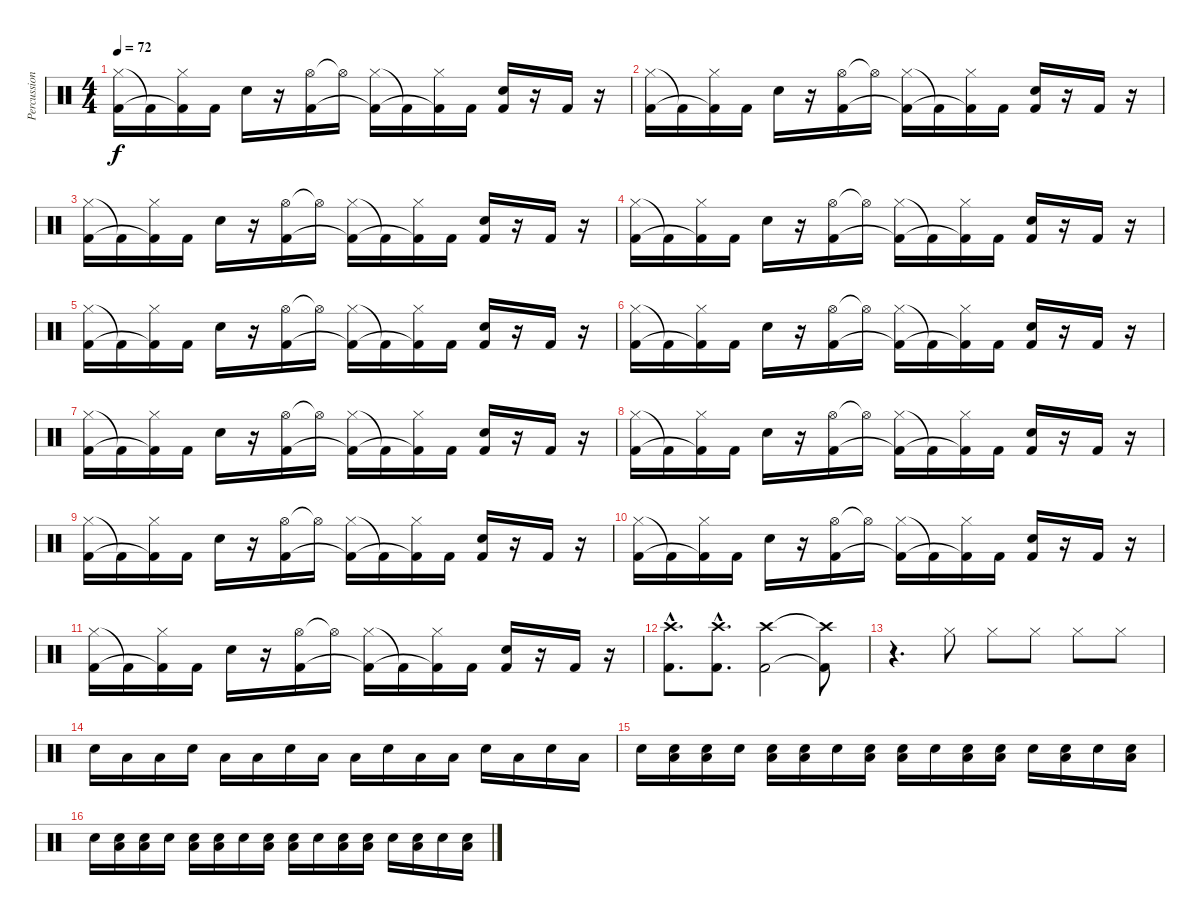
\track ("Percussion" "Percussion") {instrument percussion}
\staff {score}
\articulation defaults
\ts (4 4)
\tempo 72
\clef neutral
\ks c
("Hi-Hat (closed)" "Kick (hit) 2").16{dy f} "Kick (hit) 2"{t}.16 ("Hi-Hat (closed)" "Kick (hit) 2"{t}).16 "Kick (hit) 2".16 "Snare (hit) 2".16 r.16 ("Hi-Hat (open)" "Kick (hit) 2").16 "Hi-Hat (open)"{t}.16 ("Hi-Hat (closed)" "Kick (hit) 2"{t}).16 "Kick (hit) 2"{t}.16 ("Hi-Hat (closed)" "Kick (hit) 2"{t}).16 "Kick (hit) 2".16 ("Snare (hit) 2" "Kick (hit) 2").16 r.16 "Kick (hit) 2".16 r.16 |
("Hi-Hat (closed)" "Kick (hit) 2").16 "Kick (hit) 2"{t}.16 ("Hi-Hat (closed)" "Kick (hit) 2"{t}).16 "Kick (hit) 2".16 "Snare (hit) 2".16 r.16 ("Hi-Hat (open)" "Kick (hit) 2").16 "Hi-Hat (open)"{t}.16 ("Hi-Hat (closed)" "Kick (hit) 2"{t}).16 "Kick (hit) 2"{t}.16 ("Hi-Hat (closed)" "Kick (hit) 2"{t}).16 "Kick (hit) 2".16 ("Snare (hit) 2" "Kick (hit) 2").16 r.16 "Kick (hit) 2".16 r.16 |
("Hi-Hat (closed)" "Kick (hit) 2").16 "Kick (hit) 2"{t}.16 ("Hi-Hat (closed)" "Kick (hit) 2"{t}).16 "Kick (hit) 2".16 "Snare (hit) 2".16 r.16 ("Hi-Hat (open)" "Kick (hit) 2").16 "Hi-Hat (open)"{t}.16 ("Hi-Hat (closed)" "Kick (hit) 2"{t}).16 "Kick (hit) 2"{t}.16 ("Hi-Hat (closed)" "Kick (hit) 2"{t}).16 "Kick (hit) 2".16 ("Snare (hit) 2" "Kick (hit) 2").16 r.16 "Kick (hit) 2".16 r.16 |
("Hi-Hat (closed)" "Kick (hit) 2").16 "Kick (hit) 2"{t}.16 ("Hi-Hat (closed)" "Kick (hit) 2"{t}).16 "Kick (hit) 2".16 "Snare (hit) 2".16 r.16 ("Hi-Hat (open)" "Kick (hit) 2").16 "Hi-Hat (open)"{t}.16 ("Hi-Hat (closed)" "Kick (hit) 2"{t}).16 "Kick (hit) 2"{t}.16 ("Hi-Hat (closed)" "Kick (hit) 2"{t}).16 "Kick (hit) 2".16 ("Snare (hit) 2" "Kick (hit) 2").16 r.16 "Kick (hit) 2".16 r.16 |
("Hi-Hat (closed)" "Kick (hit) 2").16 "Kick (hit) 2"{t}.16 ("Hi-Hat (closed)" "Kick (hit) 2"{t}).16 "Kick (hit) 2".16 "Snare (hit) 2".16 r.16 ("Hi-Hat (open)" "Kick (hit) 2").16 "Hi-Hat (open)"{t}.16 ("Hi-Hat (closed)" "Kick (hit) 2"{t}).16 "Kick (hit) 2"{t}.16 ("Hi-Hat (closed)" "Kick (hit) 2"{t}).16 "Kick (hit) 2".16 ("Snare (hit) 2" "Kick (hit) 2").16 r.16 "Kick (hit) 2".16 r.16 |
("Hi-Hat (closed)" "Kick (hit) 2").16 "Kick (hit) 2"{t}.16 ("Hi-Hat (closed)" "Kick (hit) 2"{t}).16 "Kick (hit) 2".16 "Snare (hit) 2".16 r.16 ("Hi-Hat (open)" "Kick (hit) 2").16 "Hi-Hat (open)"{t}.16 ("Hi-Hat (closed)" "Kick (hit) 2"{t}).16 "Kick (hit) 2"{t}.16 ("Hi-Hat (closed)" "Kick (hit) 2"{t}).16 "Kick (hit) 2".16 ("Snare (hit) 2" "Kick (hit) 2").16 r.16 "Kick (hit) 2".16 r.16 |
("Hi-Hat (closed)" "Kick (hit) 2").16 "Kick (hit) 2"{t}.16 ("Hi-Hat (closed)" "Kick (hit) 2"{t}).16 "Kick (hit) 2".16 "Snare (hit) 2".16 r.16 ("Hi-Hat (open)" "Kick (hit) 2").16 "Hi-Hat (open)"{t}.16 ("Hi-Hat (closed)" "Kick (hit) 2"{t}).16 "Kick (hit) 2"{t}.16 ("Hi-Hat (closed)" "Kick (hit) 2"{t}).16 "Kick (hit) 2".16 ("Snare (hit) 2" "Kick (hit) 2").16 r.16 "Kick (hit) 2".16 r.16 |
("Hi-Hat (closed)" "Kick (hit) 2").16 "Kick (hit) 2"{t}.16 ("Hi-Hat (closed)" "Kick (hit) 2"{t}).16 "Kick (hit) 2".16 "Snare (hit) 2".16 r.16 ("Hi-Hat (open)" "Kick (hit) 2").16 "Hi-Hat (open)"{t}.16 ("Hi-Hat (closed)" "Kick (hit) 2"{t}).16 "Kick (hit) 2"{t}.16 ("Hi-Hat (closed)" "Kick (hit) 2"{t}).16 "Kick (hit) 2".16 ("Snare (hit) 2" "Kick (hit) 2").16 r.16 "Kick (hit) 2".16 r.16 |
("Hi-Hat (closed)" "Kick (hit) 2").16 "Kick (hit) 2"{t}.16 ("Hi-Hat (closed)" "Kick (hit) 2"{t}).16 "Kick (hit) 2".16 "Snare (hit) 2".16 r.16 ("Hi-Hat (open)" "Kick (hit) 2").16 "Hi-Hat (open)"{t}.16 ("Hi-Hat (closed)" "Kick (hit) 2"{t}).16 "Kick (hit) 2"{t}.16 ("Hi-Hat (closed)" "Kick (hit) 2"{t}).16 "Kick (hit) 2".16 ("Snare (hit) 2" "Kick (hit) 2").16 r.16 "Kick (hit) 2".16 r.16 |
("Hi-Hat (closed)" "Kick (hit) 2").16 "Kick (hit) 2"{t}.16 ("Hi-Hat (closed)" "Kick (hit) 2"{t}).16 "Kick (hit) 2".16 "Snare (hit) 2".16 r.16 ("Hi-Hat (open)" "Kick (hit) 2").16 "Hi-Hat (open)"{t}.16 ("Hi-Hat (closed)" "Kick (hit) 2"{t}).16 "Kick (hit) 2"{t}.16 ("Hi-Hat (closed)" "Kick (hit) 2"{t}).16 "Kick (hit) 2".16 ("Snare (hit) 2" "Kick (hit) 2").16 r.16 "Kick (hit) 2".16 r.16 |
("Hi-Hat (closed)" "Kick (hit) 2").16 "Kick (hit) 2"{t}.16 ("Hi-Hat (closed)" "Kick (hit) 2"{t}).16 "Kick (hit) 2".16 "Snare (hit) 2".16 r.16 ("Hi-Hat (open)" "Kick (hit) 2").16 "Hi-Hat (open)"{t}.16 ("Hi-Hat (closed)" "Kick (hit) 2"{t}).16 "Kick (hit) 2"{t}.16 ("Hi-Hat (closed)" "Kick (hit) 2"{t}).16 "Kick (hit) 2".16 ("Snare (hit) 2" "Kick (hit) 2").16 r.16 "Kick (hit) 2".16 r.16 |
("Crash high (hit)"{hac} "Kick (hit) 2"{hac}).8{d} ("Crash high (hit)"{hac} "Kick (hit) 2"{hac}).8{d} ("Crash high (hit)" "Kick (hit) 2").2 ("Crash high (hit)"{t} "Kick (hit) 2"{t}).8 |
r.4{d} "Hi-Hat (closed)".8 "Hi-Hat (closed)".8 "Hi-Hat (closed)".8 "Hi-Hat (closed)".8 "Hi-Hat (closed)".8 |
"Snare (hit) 2".16 "Low Floor Tom (hit)".16 "Low Floor Tom (hit)".16 "Snare (hit) 2".16 "Low Floor Tom (hit)".16 "Low Floor Tom (hit)".16 "Snare (hit) 2".16 "Low Floor Tom (hit)".16 "Low Floor Tom (hit)".16 "Snare (hit) 2".16 "Low Floor Tom (hit)".16 "Low Floor Tom (hit)".16 "Snare (hit) 2".16 "Low Floor Tom (hit)".16 "Snare (hit) 2".16 "Low Floor Tom (hit)".16 |
"Snare (hit) 2".16 ("Snare (hit) 2" "Low Floor Tom (hit)").16 ("Snare (hit) 2" "Low Floor Tom (hit)").16 "Snare (hit) 2".16 ("Snare (hit) 2" "Low Floor Tom (hit)").16 ("Snare (hit) 2" "Low Floor Tom (hit)").16 "Snare (hit) 2".16 ("Snare (hit) 2" "Low Floor Tom (hit)").16 ("Snare (hit) 2" "Low Floor Tom (hit)").16 "Snare (hit) 2".16 ("Snare (hit) 2" "Low Floor Tom (hit)").16 ("Snare (hit) 2" "Low Floor Tom (hit)").16 "Snare (hit) 2".16 ("Snare (hit) 2" "Low Floor Tom (hit)").16 "Snare (hit) 2".16 ("Snare (hit) 2" "Low Floor Tom (hit)").16 |
"Snare (hit) 2".16 ("Snare (hit) 2" "Low Floor Tom (hit)").16 ("Snare (hit) 2" "Low Floor Tom (hit)").16 "Snare (hit) 2".16 ("Snare (hit) 2" "Low Floor Tom (hit)").16 ("Snare (hit) 2" "Low Floor Tom (hit)").16 "Snare (hit) 2".16 ("Snare (hit) 2" "Low Floor Tom (hit)").16 ("Snare (hit) 2" "Low Floor Tom (hit)").16 "Snare (hit) 2".16 ("Snare (hit) 2" "Low Floor Tom (hit)").16 ("Snare (hit) 2" "Low Floor Tom (hit)").16 "Snare (hit) 2".16 ("Snare (hit) 2" "Low Floor Tom (hit)").16 "Snare (hit) 2".16 ("Snare (hit) 2" "Low Floor Tom (hit)").16
